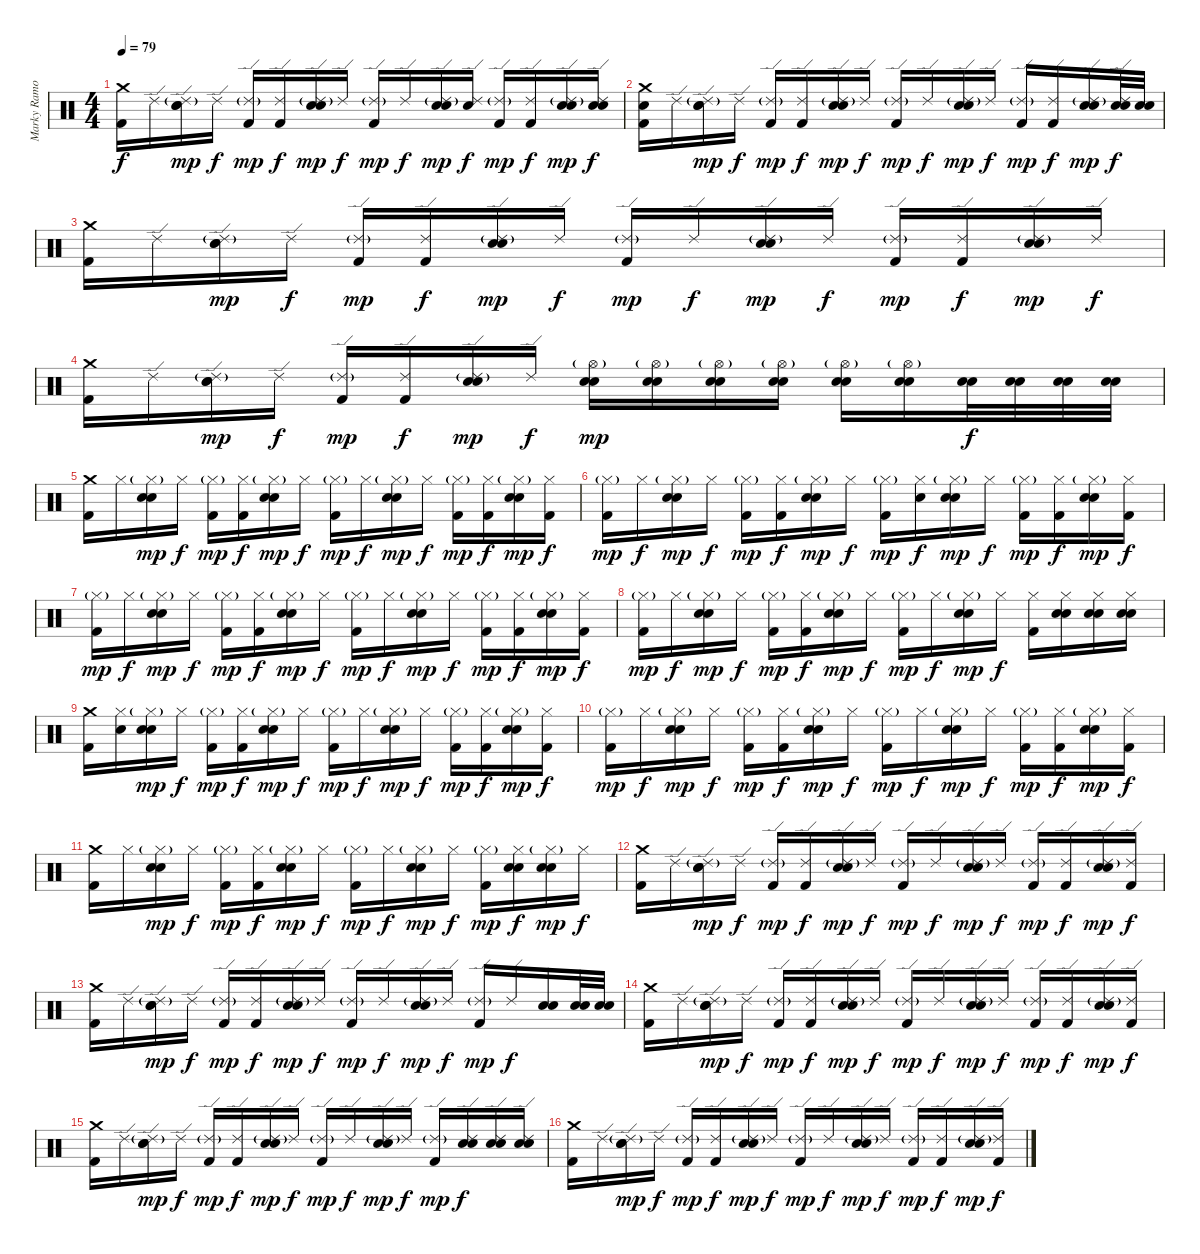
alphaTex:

\track ("Marky Ramone" "Marky Ramo") {instrument percussion}
\staff {score}
\articulation defaults
\ts (4 4)
\tempo 79
\clef neutral
\ks c
("Crash medium (hit)" "Kick (hit) 2").16{dy f} "Ride (edge) 2".16 ("Ride (edge) 2"{g} "Electric Snare (hit)" "Snare (hit) 2").16{dy mp} "Ride (edge) 2".16{dy f} ("Ride (edge) 2"{g} "Kick (hit) 2").16{dy mp} ("Ride (edge) 2" "Kick (hit) 2").16{dy f} ("Ride (edge) 2"{g} "Electric Snare (hit)" "Snare (hit) 2").16{dy mp} "Ride (edge) 2".16{dy f} ("Ride (edge) 2"{g} "Kick (hit) 2").16{dy mp} "Ride (edge) 2".16{dy f} ("Ride (edge) 2"{g} "Electric Snare (hit)" "Snare (hit) 2").16{dy mp} ("Ride (edge) 2" "Snare (hit)").16{dy f} ("Ride (edge) 2"{g} "Kick (hit) 2").16{dy mp} ("Ride (edge) 2" "Kick (hit) 2").16{dy f} ("Ride (edge) 2"{g} "Electric Snare (hit)" "Snare (hit) 2").16{dy mp} ("Ride (edge) 2" "Electric Snare (hit)" "Snare (hit) 2").16{dy f} |
("Crash medium (hit)" "Kick (hit) 2" "Snare (hit)").16 "Ride (edge) 2".16 ("Ride (edge) 2"{g} "Electric Snare (hit)" "Snare (hit) 2").16{dy mp} "Ride (edge) 2".16{dy f} ("Ride (edge) 2"{g} "Kick (hit) 2").16{dy mp} ("Ride (edge) 2" "Kick (hit) 2").16{dy f} ("Ride (edge) 2"{g} "Electric Snare (hit)" "Snare (hit) 2").16{dy mp} "Ride (edge) 2".16{dy f} ("Ride (edge) 2"{g} "Kick (hit) 2").16{dy mp} "Ride (edge) 2".16{dy f} ("Ride (edge) 2"{g} "Electric Snare (hit)" "Snare (hit) 2").16{dy mp} "Ride (edge) 2".16{dy f} ("Ride (edge) 2"{g} "Kick (hit) 2").16{dy mp} ("Ride (edge) 2" "Kick (hit) 2").16{dy f} ("Ride (edge) 2"{g} "Electric Snare (hit)" "Snare (hit) 2").16{dy mp} ("Ride (edge) 2" "Electric Snare (hit)" "Snare (hit) 2").32{dy f} ("Electric Snare (hit)" "Snare (hit) 2").32 |
("Crash medium (hit)" "Kick (hit) 2").16 "Ride (edge) 2".16 ("Ride (edge) 2"{g} "Electric Snare (hit)" "Snare (hit) 2").16{dy mp} "Ride (edge) 2".16{dy f} ("Ride (edge) 2"{g} "Kick (hit) 2").16{dy mp} ("Ride (edge) 2" "Kick (hit) 2").16{dy f} ("Ride (edge) 2"{g} "Electric Snare (hit)" "Snare (hit) 2").16{dy mp} "Ride (edge) 2".16{dy f} ("Ride (edge) 2"{g} "Kick (hit) 2").16{dy mp} "Ride (edge) 2".16{dy f} ("Ride (edge) 2"{g} "Electric Snare (hit)" "Snare (hit) 2").16{dy mp} "Ride (edge) 2".16{dy f} ("Ride (edge) 2"{g} "Kick (hit) 2").16{dy mp} ("Ride (edge) 2" "Kick (hit) 2").16{dy f} ("Ride (edge) 2"{g} "Electric Snare (hit)" "Snare (hit) 2").16{dy mp} "Ride (edge) 2".16{dy f} |
("Crash medium (hit)" "Kick (hit) 2").16 "Ride (edge) 2".16 ("Ride (edge) 2"{g} "Electric Snare (hit)" "Snare (hit) 2").16{dy mp} "Ride (edge) 2".16{dy f} ("Ride (edge) 2"{g} "Kick (hit) 2").16{dy mp} ("Ride (edge) 2" "Kick (hit) 2").16{dy f} ("Ride (edge) 2"{g} "Electric Snare (hit)" "Snare (hit) 2").16{dy mp} "Ride (edge) 2".16{dy f} ("Hi-Hat (open)"{g} "Electric Snare (hit)" "Snare (hit) 2").16{dy mp} ("Hi-Hat (open)"{g} "Electric Snare (hit)" "Snare (hit) 2").16 ("Hi-Hat (open)"{g} "Electric Snare (hit)" "Snare (hit) 2").16 ("Hi-Hat (open)"{g} "Electric Snare (hit)" "Snare (hit) 2").16 ("Hi-Hat (open)"{g} "Electric Snare (hit)" "Snare (hit) 2").16 ("Hi-Hat (open)"{g} "Electric Snare (hit)" "Snare (hit) 2").16 ("Electric Snare (hit)" "Snare (hit) 2").32{dy f} ("Electric Snare (hit)" "Snare (hit) 2").32 ("Electric Snare (hit)" "Snare (hit) 2").32 ("Electric Snare (hit)" "Snare (hit) 2").32 |
("Crash medium (hit)" "Kick (hit) 2").16 "Hi-Hat (closed)".16 ("Hi-Hat (closed)"{g} "Electric Snare (hit)" "Snare (hit) 2").16{dy mp} "Hi-Hat (closed)".16{dy f} ("Hi-Hat (closed)"{g} "Kick (hit) 2").16{dy mp} ("Hi-Hat (closed)" "Kick (hit) 2").16{dy f} ("Hi-Hat (closed)"{g} "Electric Snare (hit)" "Snare (hit) 2").16{dy mp} "Hi-Hat (closed)".16{dy f} ("Hi-Hat (closed)"{g} "Kick (hit) 2").16{dy mp} "Hi-Hat (closed)".16{dy f} ("Hi-Hat (closed)"{g} "Electric Snare (hit)" "Snare (hit) 2").16{dy mp} "Hi-Hat (closed)".16{dy f} ("Hi-Hat (closed)"{g} "Kick (hit) 2").16{dy mp} ("Hi-Hat (closed)" "Kick (hit) 2").16{dy f} ("Hi-Hat (closed)"{g} "Electric Snare (hit)" "Snare (hit) 2").16{dy mp} ("Hi-Hat (closed)" "Kick (hit) 2").16{dy f} |
("Hi-Hat (closed)"{g} "Kick (hit) 2").16{dy mp} "Hi-Hat (closed)".16{dy f} ("Hi-Hat (closed)"{g} "Electric Snare (hit)" "Snare (hit) 2").16{dy mp} "Hi-Hat (closed)".16{dy f} ("Hi-Hat (closed)"{g} "Kick (hit) 2").16{dy mp} ("Hi-Hat (closed)" "Kick (hit) 2").16{dy f} ("Hi-Hat (closed)"{g} "Electric Snare (hit)" "Snare (hit) 2").16{dy mp} "Hi-Hat (closed)".16{dy f} ("Hi-Hat (closed)"{g} "Kick (hit) 2").16{dy mp} ("Hi-Hat (closed)" "Snare (hit)").16{dy f} ("Hi-Hat (closed)"{g} "Electric Snare (hit)" "Snare (hit) 2").16{dy mp} "Hi-Hat (closed)".16{dy f} ("Hi-Hat (closed)"{g} "Kick (hit) 2").16{dy mp} ("Hi-Hat (closed)" "Kick (hit) 2").16{dy f} ("Hi-Hat (closed)"{g} "Electric Snare (hit)" "Snare (hit) 2").16{dy mp} ("Hi-Hat (closed)" "Kick (hit) 2").16{dy f} |
("Hi-Hat (closed)"{g} "Kick (hit) 2").16{dy mp} "Hi-Hat (closed)".16{dy f} ("Hi-Hat (closed)"{g} "Electric Snare (hit)" "Snare (hit) 2").16{dy mp} "Hi-Hat (closed)".16{dy f} ("Hi-Hat (closed)"{g} "Kick (hit) 2").16{dy mp} ("Hi-Hat (closed)" "Kick (hit) 2").16{dy f} ("Hi-Hat (closed)"{g} "Electric Snare (hit)" "Snare (hit) 2").16{dy mp} "Hi-Hat (closed)".16{dy f} ("Hi-Hat (closed)"{g} "Kick (hit) 2").16{dy mp} "Hi-Hat (closed)".16{dy f} ("Hi-Hat (closed)"{g} "Electric Snare (hit)" "Snare (hit) 2").16{dy mp} "Hi-Hat (closed)".16{dy f} ("Hi-Hat (closed)"{g} "Kick (hit) 2").16{dy mp} ("Hi-Hat (closed)" "Kick (hit) 2").16{dy f} ("Hi-Hat (closed)"{g} "Electric Snare (hit)" "Snare (hit) 2").16{dy mp} ("Hi-Hat (closed)" "Kick (hit) 2").16{dy f} |
("Hi-Hat (closed)"{g} "Kick (hit) 2").16{dy mp} "Hi-Hat (closed)".16{dy f} ("Hi-Hat (closed)"{g} "Electric Snare (hit)" "Snare (hit) 2").16{dy mp} "Hi-Hat (closed)".16{dy f} ("Hi-Hat (closed)"{g} "Kick (hit) 2").16{dy mp} ("Hi-Hat (closed)" "Kick (hit) 2").16{dy f} ("Hi-Hat (closed)"{g} "Electric Snare (hit)" "Snare (hit) 2").16{dy mp} "Hi-Hat (closed)".16{dy f} ("Hi-Hat (closed)"{g} "Kick (hit) 2").16{dy mp} "Hi-Hat (closed)".16{dy f} ("Hi-Hat (closed)"{g} "Electric Snare (hit)" "Snare (hit) 2").16{dy mp} "Hi-Hat (closed)".16{dy f} ("Hi-Hat (closed)" "Kick (hit) 2").16 ("Hi-Hat (closed)" "Electric Snare (hit)" "Snare (hit) 2").16 ("Hi-Hat (closed)" "Electric Snare (hit)" "Snare (hit) 2").16 ("Hi-Hat (closed)" "Electric Snare (hit)" "Snare (hit) 2").16 |
("Crash medium (hit)" "Kick (hit) 2").16 ("Hi-Hat (closed)" "Snare (hit)").16 ("Hi-Hat (closed)"{g} "Electric Snare (hit)" "Snare (hit) 2").16{dy mp} "Hi-Hat (closed)".16{dy f} ("Hi-Hat (closed)"{g} "Kick (hit) 2").16{dy mp} ("Hi-Hat (closed)" "Kick (hit) 2").16{dy f} ("Hi-Hat (closed)"{g} "Electric Snare (hit)" "Snare (hit) 2").16{dy mp} "Hi-Hat (closed)".16{dy f} ("Hi-Hat (closed)"{g} "Kick (hit) 2").16{dy mp} "Hi-Hat (closed)".16{dy f} ("Hi-Hat (closed)"{g} "Electric Snare (hit)" "Snare (hit) 2").16{dy mp} "Hi-Hat (closed)".16{dy f} ("Hi-Hat (closed)"{g} "Kick (hit) 2").16{dy mp} ("Hi-Hat (closed)" "Kick (hit) 2").16{dy f} ("Hi-Hat (closed)"{g} "Electric Snare (hit)" "Snare (hit) 2").16{dy mp} ("Hi-Hat (closed)" "Kick (hit) 2").16{dy f} |
("Hi-Hat (closed)"{g} "Kick (hit) 2").16{dy mp} "Hi-Hat (closed)".16{dy f} ("Hi-Hat (closed)"{g} "Electric Snare (hit)" "Snare (hit) 2").16{dy mp} "Hi-Hat (closed)".16{dy f} ("Hi-Hat (closed)"{g} "Kick (hit) 2").16{dy mp} ("Hi-Hat (closed)" "Kick (hit) 2").16{dy f} ("Hi-Hat (closed)"{g} "Electric Snare (hit)" "Snare (hit) 2").16{dy mp} "Hi-Hat (closed)".16{dy f} ("Hi-Hat (closed)"{g} "Kick (hit) 2").16{dy mp} "Hi-Hat (closed)".16{dy f} ("Hi-Hat (closed)"{g} "Electric Snare (hit)" "Snare (hit) 2").16{dy mp} "Hi-Hat (closed)".16{dy f} ("Hi-Hat (closed)"{g} "Kick (hit) 2").16{dy mp} ("Hi-Hat (closed)" "Kick (hit) 2").16{dy f} ("Hi-Hat (closed)"{g} "Electric Snare (hit)" "Snare (hit) 2").16{dy mp} ("Hi-Hat (closed)" "Kick (hit) 2").16{dy f} |
("Crash medium (hit)" "Kick (hit) 2").16 "Hi-Hat (closed)".16 ("Hi-Hat (closed)"{g} "Electric Snare (hit)" "Snare (hit) 2").16{dy mp} "Hi-Hat (closed)".16{dy f} ("Hi-Hat (closed)"{g} "Kick (hit) 2").16{dy mp} ("Hi-Hat (closed)" "Kick (hit) 2").16{dy f} ("Hi-Hat (closed)"{g} "Electric Snare (hit)" "Snare (hit) 2").16{dy mp} "Hi-Hat (closed)".16{dy f} ("Hi-Hat (closed)"{g} "Kick (hit) 2").16{dy mp} "Hi-Hat (closed)".16{dy f} ("Hi-Hat (closed)"{g} "Electric Snare (hit)" "Snare (hit) 2").16{dy mp} "Hi-Hat (closed)".16{dy f} ("Hi-Hat (closed)"{g} "Kick (hit) 2").16{dy mp} ("Hi-Hat (closed)" "Electric Snare (hit)" "Snare (hit) 2").16{dy f} ("Hi-Hat (closed)"{g} "Electric Snare (hit)" "Snare (hit) 2").16{dy mp} "Hi-Hat (closed)".16{dy f} |
("Crash medium (hit)" "Kick (hit) 2").16 "Ride (edge) 2".16 ("Ride (edge) 2"{g} "Electric Snare (hit)" "Snare (hit) 2").16{dy mp} "Ride (edge) 2".16{dy f} ("Ride (edge) 2"{g} "Kick (hit) 2").16{dy mp} ("Ride (edge) 2" "Kick (hit) 2").16{dy f} ("Ride (edge) 2"{g} "Electric Snare (hit)" "Snare (hit) 2").16{dy mp} "Ride (edge) 2".16{dy f} ("Ride (edge) 2"{g} "Kick (hit) 2").16{dy mp} "Ride (edge) 2".16{dy f} ("Ride (edge) 2"{g} "Electric Snare (hit)" "Snare (hit) 2").16{dy mp} "Ride (edge) 2".16{dy f} ("Ride (edge) 2"{g} "Kick (hit) 2").16{dy mp} ("Ride (edge) 2" "Kick (hit) 2").16{dy f} ("Ride (edge) 2"{g} "Electric Snare (hit)" "Snare (hit) 2").16{dy mp} ("Ride (edge) 2" "Kick (hit) 2").16{dy f} |
("Crash medium (hit)" "Kick (hit) 2").16 "Ride (edge) 2".16 ("Ride (edge) 2"{g} "Electric Snare (hit)" "Snare (hit) 2").16{dy mp} "Ride (edge) 2".16{dy f} ("Ride (edge) 2"{g} "Kick (hit) 2").16{dy mp} ("Ride (edge) 2" "Kick (hit) 2").16{dy f} ("Ride (edge) 2"{g} "Electric Snare (hit)" "Snare (hit) 2").16{dy mp} "Ride (edge) 2".16{dy f} ("Ride (edge) 2"{g} "Kick (hit) 2").16{dy mp} "Ride (edge) 2".16{dy f} ("Ride (edge) 2"{g} "Electric Snare (hit)" "Snare (hit) 2").16{dy mp} "Ride (edge) 2".16{dy f} ("Ride (edge) 2"{g} "Kick (hit) 2").16{dy mp} "Ride (edge) 2".16{dy f} ("Electric Snare (hit)" "Snare (hit) 2").16 ("Electric Snare (hit)" "Snare (hit) 2").32 ("Electric Snare (hit)" "Snare (hit) 2").32 |
("Crash medium (hit)" "Kick (hit) 2").16 "Ride (edge) 2".16 ("Ride (edge) 2"{g} "Electric Snare (hit)" "Snare (hit) 2").16{dy mp} "Ride (edge) 2".16{dy f} ("Ride (edge) 2"{g} "Kick (hit) 2").16{dy mp} ("Ride (edge) 2" "Kick (hit) 2").16{dy f} ("Ride (edge) 2"{g} "Electric Snare (hit)" "Snare (hit) 2").16{dy mp} "Ride (edge) 2".16{dy f} ("Ride (edge) 2"{g} "Kick (hit) 2").16{dy mp} "Ride (edge) 2".16{dy f} ("Ride (edge) 2"{g} "Electric Snare (hit)" "Snare (hit) 2").16{dy mp} "Ride (edge) 2".16{dy f} ("Ride (edge) 2"{g} "Kick (hit) 2").16{dy mp} ("Ride (edge) 2" "Kick (hit) 2").16{dy f} ("Ride (edge) 2"{g} "Electric Snare (hit)" "Snare (hit) 2").16{dy mp} ("Ride (edge) 2" "Kick (hit) 2").16{dy f} |
("Crash medium (hit)" "Kick (hit) 2").16 "Ride (edge) 2".16 ("Ride (edge) 2"{g} "Electric Snare (hit)" "Snare (hit) 2").16{dy mp} "Ride (edge) 2".16{dy f} ("Ride (edge) 2"{g} "Kick (hit) 2").16{dy mp} ("Ride (edge) 2" "Kick (hit) 2").16{dy f} ("Ride (edge) 2"{g} "Electric Snare (hit)" "Snare (hit) 2").16{dy mp} "Ride (edge) 2".16{dy f} ("Ride (edge) 2"{g} "Kick (hit) 2").16{dy mp} "Ride (edge) 2".16{dy f} ("Ride (edge) 2"{g} "Electric Snare (hit)" "Snare (hit) 2").16{dy mp} "Ride (edge) 2".16{dy f} ("Ride (edge) 2"{g} "Kick (hit) 2").16{dy mp} ("Ride (edge) 2" "Electric Snare (hit)" "Snare (hit) 2").16{dy f} ("Ride (edge) 2" "Electric Snare (hit)" "Snare (hit) 2").16 ("Ride (edge) 2" "Electric Snare (hit)" "Snare (hit) 2").16 |
("Crash medium (hit)" "Kick (hit) 2").16 "Ride (edge) 2".16 ("Ride (edge) 2"{g} "Electric Snare (hit)" "Snare (hit) 2").16{dy mp} "Ride (edge) 2".16{dy f} ("Ride (edge) 2"{g} "Kick (hit) 2").16{dy mp} ("Ride (edge) 2" "Kick (hit) 2").16{dy f} ("Ride (edge) 2"{g} "Electric Snare (hit)" "Snare (hit) 2").16{dy mp} "Ride (edge) 2".16{dy f} ("Ride (edge) 2"{g} "Kick (hit) 2").16{dy mp} "Ride (edge) 2".16{dy f} ("Ride (edge) 2"{g} "Electric Snare (hit)" "Snare (hit) 2").16{dy mp} "Ride (edge) 2".16{dy f} ("Ride (edge) 2"{g} "Kick (hit) 2").16{dy mp} ("Ride (edge) 2" "Kick (hit) 2").16{dy f} ("Ride (edge) 2"{g} "Electric Snare (hit)" "Snare (hit) 2").16{dy mp} ("Ride (edge) 2" "Kick (hit) 2").16{dy f}
